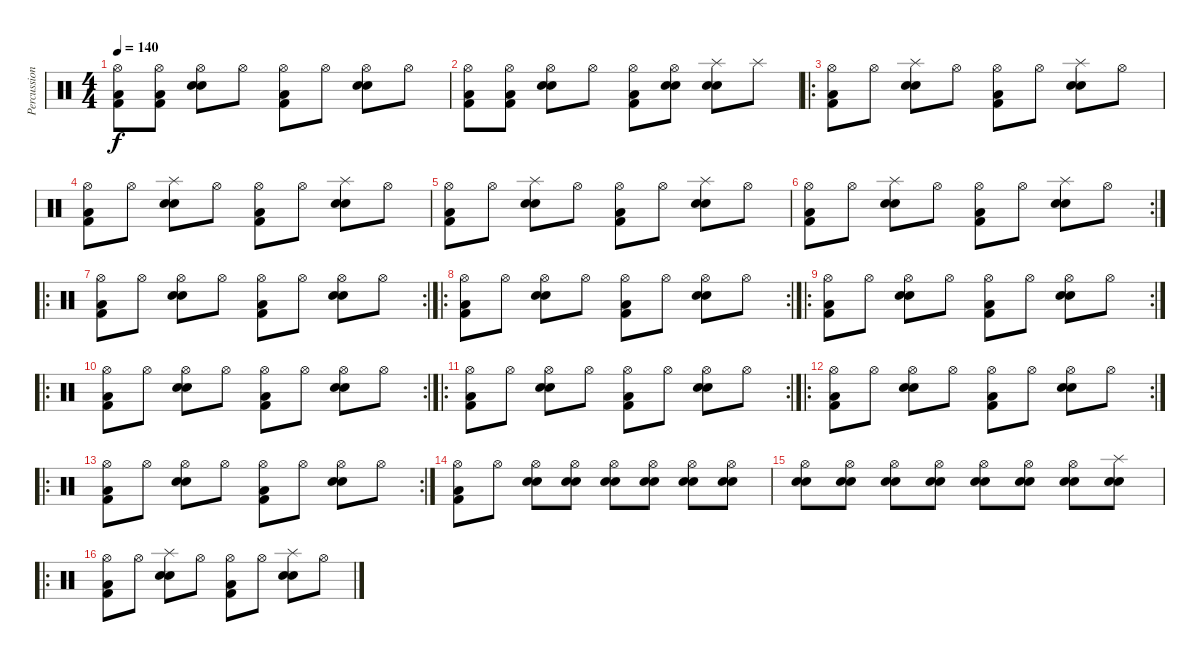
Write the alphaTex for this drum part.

\track ("Percussions" "Percussion") {instrument percussion}
\staff {score}
\articulation defaults
\ts (4 4)
\tempo 140
\clef neutral
\ks c
("Hi-Hat (open)" "Kick (hit) 2" "Low Floor Tom (hit)").8{dy f} ("Hi-Hat (open)" "Kick (hit) 2" "Low Floor Tom (hit)").8 ("Hi-Hat (open)" "Snare (hit) 2" "Electric Snare (hit)").8 "Hi-Hat (open)".8 ("Hi-Hat (open)" "Kick (hit) 2" "Low Floor Tom (hit)").8 "Hi-Hat (open)".8 ("Hi-Hat (open)" "Snare (hit) 2" "Electric Snare (hit)").8 "Hi-Hat (open)".8 |
("Hi-Hat (open)" "Kick (hit) 2" "Low Floor Tom (hit)").8 ("Hi-Hat (open)" "Kick (hit) 2" "Low Floor Tom (hit)").8 ("Hi-Hat (open)" "Snare (hit) 2" "Electric Snare (hit)").8 "Hi-Hat (open)".8 ("Hi-Hat (open)" "Kick (hit) 2" "Low Floor Tom (hit)").8 ("Hi-Hat (open)" "Snare (hit) 2" "Electric Snare (hit)").8 ("Splash (hit)" "Snare (hit) 2" "Electric Snare (hit)").8 "Splash (hit)".8 |
\ro
("Hi-Hat (open)" "Kick (hit) 2" "Low Floor Tom (hit)").8 "Hi-Hat (open)".8 ("Splash (hit)" "Snare (hit) 2" "Electric Snare (hit)").8 "Hi-Hat (open)".8 ("Hi-Hat (open)" "Kick (hit) 2" "Low Floor Tom (hit)").8 "Hi-Hat (open)".8 ("Splash (hit)" "Snare (hit) 2" "Electric Snare (hit)").8 "Hi-Hat (open)".8 |
("Hi-Hat (open)" "Kick (hit) 2" "Low Floor Tom (hit)").8 "Hi-Hat (open)".8 ("Splash (hit)" "Snare (hit) 2" "Electric Snare (hit)").8 "Hi-Hat (open)".8 ("Hi-Hat (open)" "Kick (hit) 2" "Low Floor Tom (hit)").8 "Hi-Hat (open)".8 ("Splash (hit)" "Snare (hit) 2" "Electric Snare (hit)").8 "Hi-Hat (open)".8 |
("Hi-Hat (open)" "Kick (hit) 2" "Low Floor Tom (hit)").8 "Hi-Hat (open)".8 ("Splash (hit)" "Snare (hit) 2" "Electric Snare (hit)").8 "Hi-Hat (open)".8 ("Hi-Hat (open)" "Kick (hit) 2" "Low Floor Tom (hit)").8 "Hi-Hat (open)".8 ("Splash (hit)" "Snare (hit) 2" "Electric Snare (hit)").8 "Hi-Hat (open)".8 |
\rc 2
("Hi-Hat (open)" "Kick (hit) 2" "Low Floor Tom (hit)").8 "Hi-Hat (open)".8 ("Splash (hit)" "Snare (hit) 2" "Electric Snare (hit)").8 "Hi-Hat (open)".8 ("Hi-Hat (open)" "Kick (hit) 2" "Low Floor Tom (hit)").8 "Hi-Hat (open)".8 ("Splash (hit)" "Snare (hit) 2" "Electric Snare (hit)").8 "Hi-Hat (open)".8 |
\ro
\rc 2
("Hi-Hat (open)" "Kick (hit) 2" "Low Floor Tom (hit)").8 "Hi-Hat (open)".8 ("Hi-Hat (open)" "Snare (hit) 2" "Electric Snare (hit)").8 "Hi-Hat (open)".8 ("Hi-Hat (open)" "Kick (hit) 2" "Low Floor Tom (hit)").8 "Hi-Hat (open)".8 ("Hi-Hat (open)" "Snare (hit) 2" "Electric Snare (hit)").8 "Hi-Hat (open)".8 |
\ro
\rc 2
("Hi-Hat (open)" "Kick (hit) 2" "Low Floor Tom (hit)").8 "Hi-Hat (open)".8 ("Hi-Hat (open)" "Snare (hit) 2" "Electric Snare (hit)").8 "Hi-Hat (open)".8 ("Hi-Hat (open)" "Kick (hit) 2" "Low Floor Tom (hit)").8 "Hi-Hat (open)".8 ("Hi-Hat (open)" "Snare (hit) 2" "Electric Snare (hit)").8 "Hi-Hat (open)".8 |
\ro
\rc 2
("Hi-Hat (open)" "Kick (hit) 2" "Low Floor Tom (hit)").8 "Hi-Hat (open)".8 ("Hi-Hat (open)" "Snare (hit) 2" "Electric Snare (hit)").8 "Hi-Hat (open)".8 ("Hi-Hat (open)" "Kick (hit) 2" "Low Floor Tom (hit)").8 "Hi-Hat (open)".8 ("Hi-Hat (open)" "Snare (hit) 2" "Electric Snare (hit)").8 "Hi-Hat (open)".8 |
\ro
\rc 2
("Hi-Hat (open)" "Kick (hit) 2" "Low Floor Tom (hit)").8 "Hi-Hat (open)".8 ("Hi-Hat (open)" "Snare (hit) 2" "Electric Snare (hit)").8 "Hi-Hat (open)".8 ("Hi-Hat (open)" "Kick (hit) 2" "Low Floor Tom (hit)").8 "Hi-Hat (open)".8 ("Hi-Hat (open)" "Snare (hit) 2" "Electric Snare (hit)").8 "Hi-Hat (open)".8 |
\ro
\rc 2
("Hi-Hat (open)" "Kick (hit) 2" "Low Floor Tom (hit)").8 "Hi-Hat (open)".8 ("Hi-Hat (open)" "Snare (hit) 2" "Electric Snare (hit)").8 "Hi-Hat (open)".8 ("Hi-Hat (open)" "Kick (hit) 2" "Low Floor Tom (hit)").8 "Hi-Hat (open)".8 ("Hi-Hat (open)" "Snare (hit) 2" "Electric Snare (hit)").8 "Hi-Hat (open)".8 |
\ro
\rc 2
("Hi-Hat (open)" "Kick (hit) 2" "Low Floor Tom (hit)").8 "Hi-Hat (open)".8 ("Hi-Hat (open)" "Snare (hit) 2" "Electric Snare (hit)").8 "Hi-Hat (open)".8 ("Hi-Hat (open)" "Kick (hit) 2" "Low Floor Tom (hit)").8 "Hi-Hat (open)".8 ("Hi-Hat (open)" "Snare (hit) 2" "Electric Snare (hit)").8 "Hi-Hat (open)".8 |
\ro
\rc 2
("Hi-Hat (open)" "Kick (hit) 2" "Low Floor Tom (hit)").8 "Hi-Hat (open)".8 ("Hi-Hat (open)" "Snare (hit) 2" "Electric Snare (hit)").8 "Hi-Hat (open)".8 ("Hi-Hat (open)" "Kick (hit) 2" "Low Floor Tom (hit)").8 "Hi-Hat (open)".8 ("Hi-Hat (open)" "Snare (hit) 2" "Electric Snare (hit)").8 "Hi-Hat (open)".8 |
("Hi-Hat (open)" "Kick (hit) 2" "Low Floor Tom (hit)").8 "Hi-Hat (open)".8 ("Hi-Hat (open)" "Snare (hit) 2" "Electric Snare (hit)").8 ("Hi-Hat (open)" "Snare (hit) 2" "Electric Snare (hit)").8 ("Hi-Hat (open)" "Snare (hit) 2" "Electric Snare (hit)").8 ("Hi-Hat (open)" "Snare (hit) 2" "Electric Snare (hit)").8 ("Hi-Hat (open)" "Snare (hit) 2" "Electric Snare (hit)").8 ("Hi-Hat (open)" "Snare (hit) 2" "Electric Snare (hit)").8 |
("Hi-Hat (open)" "Snare (hit) 2" "Electric Snare (hit)").8 ("Hi-Hat (open)" "Snare (hit) 2" "Electric Snare (hit)").8 ("Hi-Hat (open)" "Snare (hit) 2" "Electric Snare (hit)").8 ("Hi-Hat (open)" "Snare (hit) 2" "Electric Snare (hit)").8 ("Hi-Hat (open)" "Snare (hit) 2" "Electric Snare (hit)").8 ("Hi-Hat (open)" "Snare (hit) 2" "Electric Snare (hit)").8 ("Hi-Hat (open)" "Snare (hit) 2" "Electric Snare (hit)").8 ("Splash (hit)" "Snare (hit) 2" "Electric Snare (hit)").8 |
\ro
("Hi-Hat (open)" "Kick (hit) 2" "Low Floor Tom (hit)").8 "Hi-Hat (open)".8 ("Splash (hit)" "Snare (hit) 2" "Electric Snare (hit)").8 "Hi-Hat (open)".8 ("Hi-Hat (open)" "Kick (hit) 2" "Low Floor Tom (hit)").8 "Hi-Hat (open)".8 ("Splash (hit)" "Snare (hit) 2" "Electric Snare (hit)").8 "Hi-Hat (open)".8
